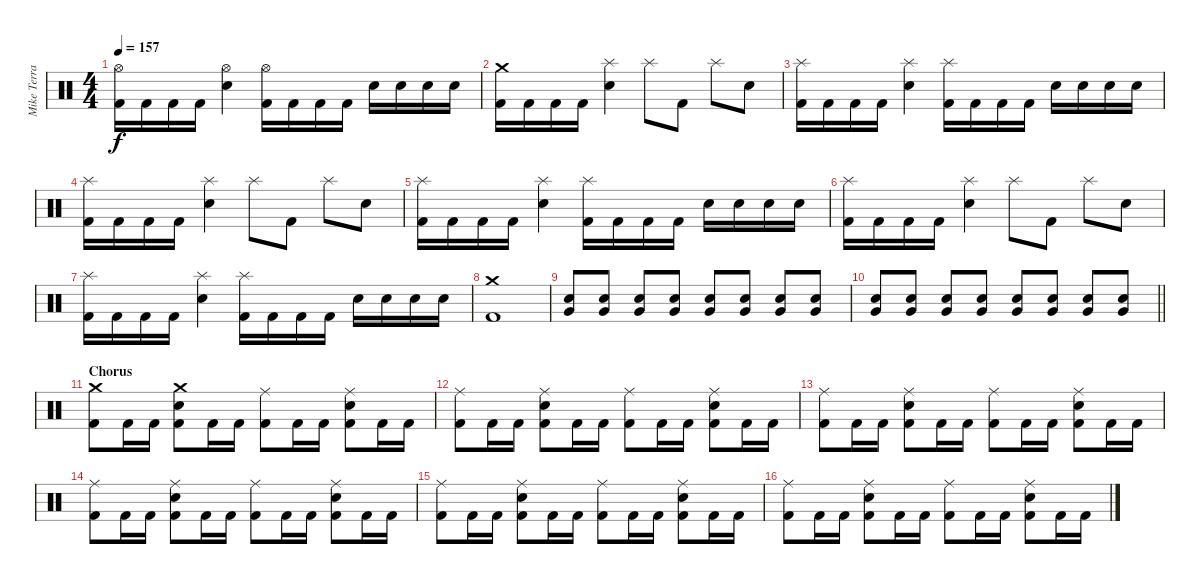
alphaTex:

\track ("Mike Terrana" "Mike Terra") {instrument percussion}
\staff {score}
\articulation defaults
\ts (4 4)
\tempo 157
\clef neutral
\ks c
("Hi-Hat (open)" "Kick (hit) 2").16{dy f} "Kick (hit) 2".16 "Kick (hit) 2".16 "Kick (hit) 2".16 ("Hi-Hat (open)" "Snare (hit) 2").4 ("Hi-Hat (open)" "Kick (hit) 2").16 "Kick (hit) 2".16 "Kick (hit) 2".16 "Kick (hit) 2".16 "Snare (hit) 2".16 "Snare (hit) 2".16 "Snare (hit) 2".16 "Snare (hit) 2".16 |
("Crash medium (hit)" "Kick (hit) 2").16 "Kick (hit) 2".16 "Kick (hit) 2".16 "Kick (hit) 2".16 ("Splash (hit)" "Snare (hit) 2").4 "Splash (hit)".8 "Kick (hit) 2".8 "Splash (hit)".8 "Snare (hit) 2".8 |
("Splash (hit)" "Kick (hit) 2").16 "Kick (hit) 2".16 "Kick (hit) 2".16 "Kick (hit) 2".16 ("Splash (hit)" "Snare (hit) 2").4 ("Splash (hit)" "Kick (hit) 2").16 "Kick (hit) 2".16 "Kick (hit) 2".16 "Kick (hit) 2".16 "Snare (hit) 2".16 "Snare (hit) 2".16 "Snare (hit) 2".16 "Snare (hit) 2".16 |
("Splash (hit)" "Kick (hit) 2").16 "Kick (hit) 2".16 "Kick (hit) 2".16 "Kick (hit) 2".16 ("Splash (hit)" "Snare (hit) 2").4 "Splash (hit)".8 "Kick (hit) 2".8 "Splash (hit)".8 "Snare (hit) 2".8 |
("Splash (hit)" "Kick (hit) 2").16 "Kick (hit) 2".16 "Kick (hit) 2".16 "Kick (hit) 2".16 ("Splash (hit)" "Snare (hit) 2").4 ("Splash (hit)" "Kick (hit) 2").16 "Kick (hit) 2".16 "Kick (hit) 2".16 "Kick (hit) 2".16 "Snare (hit) 2".16 "Snare (hit) 2".16 "Snare (hit) 2".16 "Snare (hit) 2".16 |
("Splash (hit)" "Kick (hit) 2").16 "Kick (hit) 2".16 "Kick (hit) 2".16 "Kick (hit) 2".16 ("Splash (hit)" "Snare (hit) 2").4 "Splash (hit)".8 "Kick (hit) 2".8 "Splash (hit)".8 "Snare (hit) 2".8 |
("Splash (hit)" "Kick (hit) 2").16 "Kick (hit) 2".16 "Kick (hit) 2".16 "Kick (hit) 2".16 ("Splash (hit)" "Snare (hit) 2").4 ("Splash (hit)" "Kick (hit) 2").16 "Kick (hit) 2".16 "Kick (hit) 2".16 "Kick (hit) 2".16 "Snare (hit) 2".16 "Snare (hit) 2".16 "Snare (hit) 2".16 "Snare (hit) 2".16 |
("Crash medium (hit)" "Kick (hit) 2").1 |
("Snare (hit) 2" "Very Low Tom (hit)").8 ("Snare (hit) 2" "Very Low Tom (hit)").8 ("Snare (hit) 2" "Very Low Tom (hit)").8 ("Snare (hit) 2" "Very Low Tom (hit)").8 ("Snare (hit) 2" "Very Low Tom (hit)").8 ("Snare (hit) 2" "Very Low Tom (hit)").8 ("Snare (hit) 2" "Very Low Tom (hit)").8 ("Snare (hit) 2" "Very Low Tom (hit)").8 |
\barLineRight lightlight
("Snare (hit) 2" "Very Low Tom (hit)").8 ("Snare (hit) 2" "Very Low Tom (hit)").8 ("Snare (hit) 2" "Very Low Tom (hit)").8 ("Snare (hit) 2" "Very Low Tom (hit)").8 ("Snare (hit) 2" "Very Low Tom (hit)").8 ("Snare (hit) 2" "Very Low Tom (hit)").8 ("Snare (hit) 2" "Very Low Tom (hit)").8 ("Snare (hit) 2" "Very Low Tom (hit)").8 |
\section ("" "Chorus")
("Crash medium (hit)" "Kick (hit) 2").8 "Kick (hit) 2".16 "Kick (hit) 2".16 ("Crash medium (hit)" "Snare (hit) 2" "Kick (hit) 2").8 "Kick (hit) 2".16 "Kick (hit) 2".16 ("Ride (middle)" "Kick (hit) 2").8 "Kick (hit) 2".16 "Kick (hit) 2".16 ("Ride (middle)" "Snare (hit) 2" "Kick (hit) 2").8 "Kick (hit) 2".16 "Kick (hit) 2".16 |
("Ride (middle)" "Kick (hit) 2").8 "Kick (hit) 2".16 "Kick (hit) 2".16 ("Ride (middle)" "Snare (hit) 2" "Kick (hit) 2").8 "Kick (hit) 2".16 "Kick (hit) 2".16 ("Ride (middle)" "Kick (hit) 2").8 "Kick (hit) 2".16 "Kick (hit) 2".16 ("Ride (middle)" "Snare (hit) 2" "Kick (hit) 2").8 "Kick (hit) 2".16 "Kick (hit) 2".16 |
("Ride (middle)" "Kick (hit) 2").8 "Kick (hit) 2".16 "Kick (hit) 2".16 ("Ride (middle)" "Snare (hit) 2" "Kick (hit) 2").8 "Kick (hit) 2".16 "Kick (hit) 2".16 ("Ride (middle)" "Kick (hit) 2").8 "Kick (hit) 2".16 "Kick (hit) 2".16 ("Ride (middle)" "Snare (hit) 2" "Kick (hit) 2").8 "Kick (hit) 2".16 "Kick (hit) 2".16 |
("Ride (middle)" "Kick (hit) 2").8 "Kick (hit) 2".16 "Kick (hit) 2".16 ("Ride (middle)" "Snare (hit) 2" "Kick (hit) 2").8 "Kick (hit) 2".16 "Kick (hit) 2".16 ("Ride (middle)" "Kick (hit) 2").8 "Kick (hit) 2".16 "Kick (hit) 2".16 ("Ride (middle)" "Snare (hit) 2" "Kick (hit) 2").8 "Kick (hit) 2".16 "Kick (hit) 2".16 |
("Ride (middle)" "Kick (hit) 2").8 "Kick (hit) 2".16 "Kick (hit) 2".16 ("Ride (middle)" "Snare (hit) 2" "Kick (hit) 2").8 "Kick (hit) 2".16 "Kick (hit) 2".16 ("Ride (middle)" "Kick (hit) 2").8 "Kick (hit) 2".16 "Kick (hit) 2".16 ("Ride (middle)" "Snare (hit) 2" "Kick (hit) 2").8 "Kick (hit) 2".16 "Kick (hit) 2".16 |
("Ride (middle)" "Kick (hit) 2").8 "Kick (hit) 2".16 "Kick (hit) 2".16 ("Ride (middle)" "Snare (hit) 2" "Kick (hit) 2").8 "Kick (hit) 2".16 "Kick (hit) 2".16 ("Ride (middle)" "Kick (hit) 2").8 "Kick (hit) 2".16 "Kick (hit) 2".16 ("Ride (middle)" "Snare (hit) 2" "Kick (hit) 2").8 "Kick (hit) 2".16 "Kick (hit) 2".16
